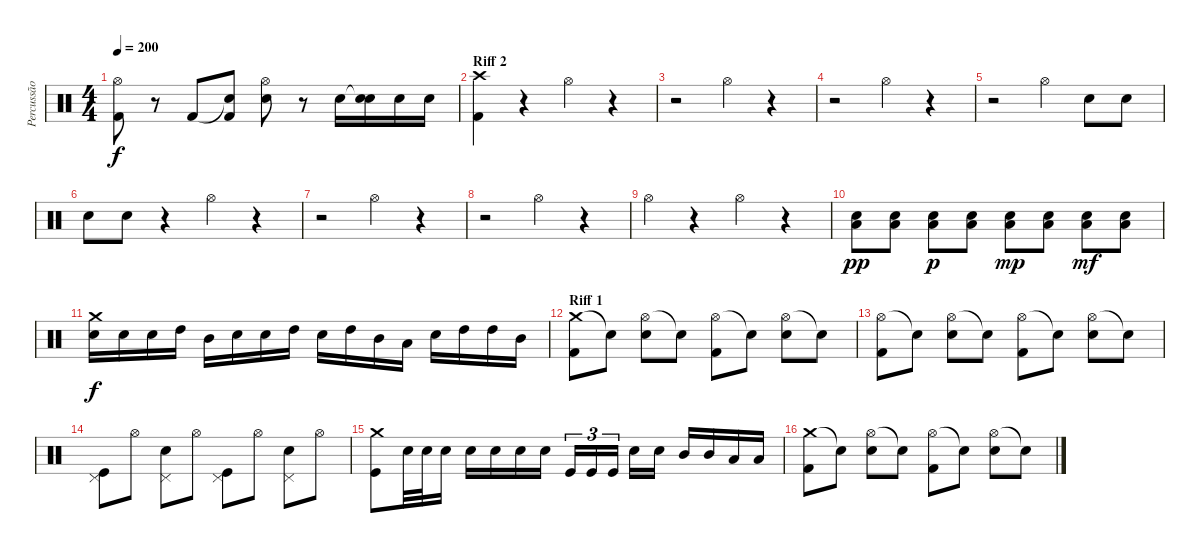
\track ("Percussão" "Percussão") {instrument percussion}
\staff {score}
\articulation defaults
\ts (4 4)
\tempo 200
\clef neutral
\ks c
("Hi-Hat (open)" "Kick (hit) 2").8{dy f} r.8 "Kick (hit) 2".8 ("Snare (hit)"{t} "Kick (hit) 2").8 ("Hi-Hat (open)" "Electric Snare (hit)").8 r.8 "Electric Snare (hit)".16 ("Snare (hit)"{t} "Electric Snare (hit)").16 "Electric Snare (hit)".16 "Electric Snare (hit)".16 |
\section ("" "Riff 2")
("Crash high (hit)" "Kick (hit) 2").4 r.4 "Hi-Hat (open)".4 r.4 |
r.2 "Hi-Hat (open)".4 r.4 |
r.2 "Hi-Hat (open)".4 r.4 |
r.2 "Hi-Hat (open)".4 "Electric Snare (hit)".8 "Electric Snare (hit)".8 |
"Electric Snare (hit)".8 "Electric Snare (hit)".8 r.4 "Hi-Hat (open)".4 r.4 |
r.2 "Hi-Hat (open)".4 r.4 |
r.2 "Hi-Hat (open)".4 r.4 |
"Hi-Hat (open)".4 r.4 "Hi-Hat (open)".4 r.4 |
("Electric Snare (hit)" "Low Floor Tom (hit)").8{dy pp} ("Electric Snare (hit)" "Low Floor Tom (hit)").8 ("Electric Snare (hit)" "Low Floor Tom (hit)").8{dy p} ("Electric Snare (hit)" "Low Floor Tom (hit)").8 ("Electric Snare (hit)" "Low Floor Tom (hit)").8{dy mp} ("Electric Snare (hit)" "Low Floor Tom (hit)").8 ("Electric Snare (hit)" "Low Floor Tom (hit)").8{dy mf} ("Electric Snare (hit)" "Low Floor Tom (hit)").8 |
("Crash medium (hit)" "Electric Snare (hit)").16{dy f} "Electric Snare (hit)".16 "Electric Snare (hit)".16 "High Tom (hit)".16 "Mid Tom (hit)".16 "Electric Snare (hit)".16 "Electric Snare (hit)".16 "High Tom (hit)".16 "Electric Snare (hit)".16 "High Tom (hit)".16 "Mid Tom (hit)".16 "Low Tom (hit)".16 "Electric Snare (hit)".16 "High Tom (hit)".16 "High Tom (hit)".16 "Mid Tom (hit)".16 |
\section ("" "Riff 1")
("Crash medium (hit)" "Kick (hit) 2").8 "Snare (hit)"{t}.8 ("Hi-Hat (open)" "Electric Snare (hit)").8 "Snare (hit)"{t}.8 ("Hi-Hat (open)" "Kick (hit) 2").8 "Snare (hit)"{t}.8 ("Hi-Hat (open)" "Electric Snare (hit)").8 "Snare (hit)"{t}.8 |
("Hi-Hat (open)" "Kick (hit) 2").8 "Snare (hit)"{t}.8 ("Hi-Hat (open)" "Electric Snare (hit)").8 "Snare (hit)"{t}.8 ("Hi-Hat (open)" "Kick (hit) 2").8 "Snare (hit)"{t}.8 ("Hi-Hat (open)" "Electric Snare (hit)").8 "Snare (hit)"{t}.8 |
("Pedal Hi-Hat (hit)" "Kick (hit)").8 "Hi-Hat (open)".8 ("Pedal Hi-Hat (hit)" "Electric Snare (hit)").8 "Hi-Hat (open)".8 ("Pedal Hi-Hat (hit)" "Kick (hit)").8 "Hi-Hat (open)".8 ("Pedal Hi-Hat (hit)" "Electric Snare (hit)").8 "Hi-Hat (open)".8 |
("Crash medium (hit)" "Kick (hit)").8 "Electric Snare (hit)".32 "Electric Snare (hit)".32 "Electric Snare (hit)".16 "Electric Snare (hit)".16 "Electric Snare (hit)".16 "Electric Snare (hit)".16 "Electric Snare (hit)".16 "Kick (hit)".16{tu (3 2)} "Kick (hit)".16{tu (3 2)} "Kick (hit)".16{tu (3 2)} "Electric Snare (hit)".16 "Electric Snare (hit)".16 "Mid Tom (hit)".16 "Mid Tom (hit)".16 "Low Tom (hit)".16 "Low Tom (hit)".16 |
("Crash medium (hit)" "Kick (hit) 2").8 "Snare (hit)"{t}.8 ("Hi-Hat (open)" "Electric Snare (hit)").8 "Snare (hit)"{t}.8 ("Hi-Hat (open)" "Kick (hit) 2").8 "Snare (hit)"{t}.8 ("Hi-Hat (open)" "Electric Snare (hit)").8 "Snare (hit)"{t}.8
